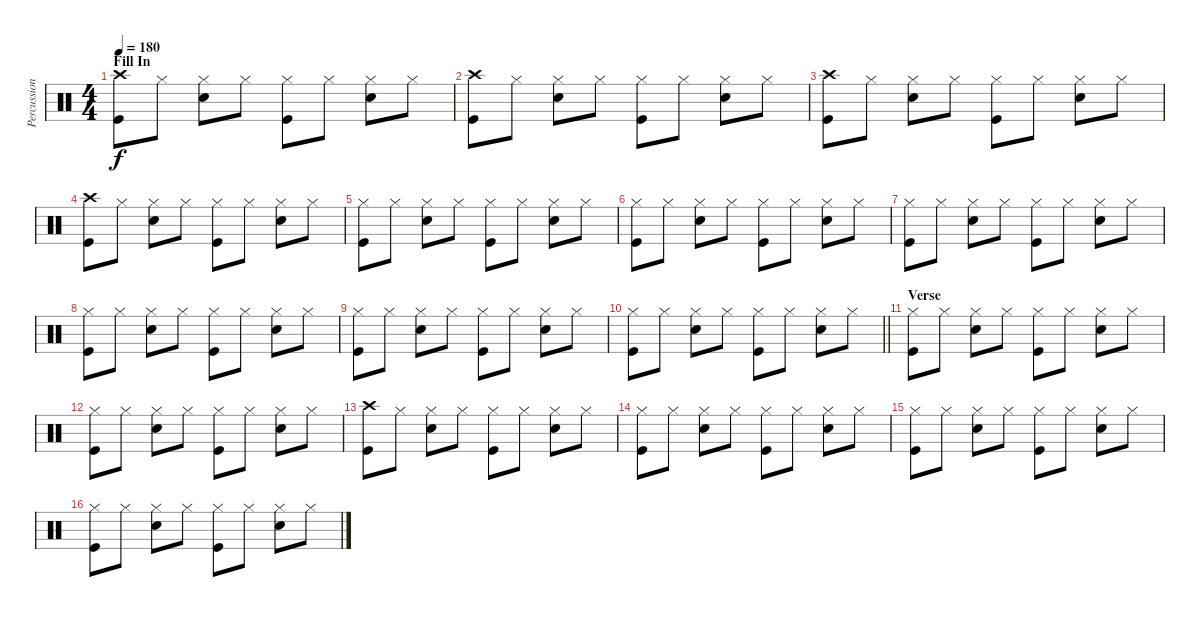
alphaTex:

\track ("Percussion" "Percussion") {mute instrument percussion}
\staff {score}
\articulation defaults
\ts (4 4)
\section ("" "Fill In")
\tempo 180
\clef neutral
\ks c
("Crash high (hit)" "Kick (hit)").8{dy f} "Hi-Hat (closed)".8 ("Hi-Hat (closed)" "Snare (hit) 2").8 "Hi-Hat (closed)".8 ("Hi-Hat (closed)" "Kick (hit)").8 "Hi-Hat (closed)".8 ("Hi-Hat (closed)" "Snare (hit) 2").8 "Hi-Hat (closed)".8 |
("Crash high (hit)" "Kick (hit)").8 "Hi-Hat (closed)".8 ("Hi-Hat (closed)" "Snare (hit) 2").8 "Hi-Hat (closed)".8 ("Hi-Hat (closed)" "Kick (hit)").8 "Hi-Hat (closed)".8 ("Hi-Hat (closed)" "Snare (hit) 2").8 "Hi-Hat (closed)".8 |
("Crash high (hit)" "Kick (hit)").8 "Hi-Hat (closed)".8 ("Hi-Hat (closed)" "Snare (hit) 2").8 "Hi-Hat (closed)".8 ("Hi-Hat (closed)" "Kick (hit)").8 "Hi-Hat (closed)".8 ("Hi-Hat (closed)" "Snare (hit) 2").8 "Hi-Hat (closed)".8 |
("Crash high (hit)" "Kick (hit)").8 "Hi-Hat (closed)".8 ("Hi-Hat (closed)" "Snare (hit) 2").8 "Hi-Hat (closed)".8 ("Hi-Hat (closed)" "Kick (hit)").8 "Hi-Hat (closed)".8 ("Hi-Hat (closed)" "Snare (hit) 2").8 "Hi-Hat (closed)".8 |
("Hi-Hat (closed)" "Kick (hit)").8 "Hi-Hat (closed)".8 ("Hi-Hat (closed)" "Snare (hit) 2").8 "Hi-Hat (closed)".8 ("Hi-Hat (closed)" "Kick (hit)").8 "Hi-Hat (closed)".8 ("Hi-Hat (closed)" "Snare (hit) 2").8 "Hi-Hat (closed)".8 |
("Hi-Hat (closed)" "Kick (hit)").8 "Hi-Hat (closed)".8 ("Hi-Hat (closed)" "Snare (hit) 2").8 "Hi-Hat (closed)".8 ("Hi-Hat (closed)" "Kick (hit)").8 "Hi-Hat (closed)".8 ("Hi-Hat (closed)" "Snare (hit) 2").8 "Hi-Hat (closed)".8 |
("Hi-Hat (closed)" "Kick (hit)").8 "Hi-Hat (closed)".8 ("Hi-Hat (closed)" "Snare (hit) 2").8 "Hi-Hat (closed)".8 ("Hi-Hat (closed)" "Kick (hit)").8 "Hi-Hat (closed)".8 ("Hi-Hat (closed)" "Snare (hit) 2").8 "Hi-Hat (closed)".8 |
("Hi-Hat (closed)" "Kick (hit)").8 "Hi-Hat (closed)".8 ("Hi-Hat (closed)" "Snare (hit) 2").8 "Hi-Hat (closed)".8 ("Hi-Hat (closed)" "Kick (hit)").8 "Hi-Hat (closed)".8 ("Hi-Hat (closed)" "Snare (hit) 2").8 "Hi-Hat (closed)".8 |
("Hi-Hat (closed)" "Kick (hit)").8 "Hi-Hat (closed)".8 ("Hi-Hat (closed)" "Snare (hit) 2").8 "Hi-Hat (closed)".8 ("Hi-Hat (closed)" "Kick (hit)").8 "Hi-Hat (closed)".8 ("Hi-Hat (closed)" "Snare (hit) 2").8 "Hi-Hat (closed)".8 |
\barLineRight lightlight
("Hi-Hat (closed)" "Kick (hit)").8 "Hi-Hat (closed)".8 ("Hi-Hat (closed)" "Snare (hit) 2").8 "Hi-Hat (closed)".8 ("Hi-Hat (closed)" "Kick (hit)").8 "Hi-Hat (closed)".8 ("Hi-Hat (closed)" "Snare (hit) 2").8 "Hi-Hat (closed)".8 |
\section ("" "Verse")
("Hi-Hat (closed)" "Kick (hit)").8 "Hi-Hat (closed)".8 ("Hi-Hat (closed)" "Snare (hit) 2").8 "Hi-Hat (closed)".8 ("Hi-Hat (closed)" "Kick (hit)").8 "Hi-Hat (closed)".8 ("Hi-Hat (closed)" "Snare (hit) 2").8 "Hi-Hat (closed)".8 |
("Hi-Hat (closed)" "Kick (hit)").8 "Hi-Hat (closed)".8 ("Hi-Hat (closed)" "Snare (hit) 2").8 "Hi-Hat (closed)".8 ("Hi-Hat (closed)" "Kick (hit)").8 "Hi-Hat (closed)".8 ("Hi-Hat (closed)" "Snare (hit) 2").8 "Hi-Hat (closed)".8 |
("Crash high (hit)" "Kick (hit)").8 "Hi-Hat (closed)".8 ("Hi-Hat (closed)" "Snare (hit) 2").8 "Hi-Hat (closed)".8 ("Hi-Hat (closed)" "Kick (hit)").8 "Hi-Hat (closed)".8 ("Hi-Hat (closed)" "Snare (hit) 2").8 "Hi-Hat (closed)".8 |
("Hi-Hat (closed)" "Kick (hit)").8 "Hi-Hat (closed)".8 ("Hi-Hat (closed)" "Snare (hit) 2").8 "Hi-Hat (closed)".8 ("Hi-Hat (closed)" "Kick (hit)").8 "Hi-Hat (closed)".8 ("Hi-Hat (closed)" "Snare (hit) 2").8 "Hi-Hat (closed)".8 |
("Hi-Hat (closed)" "Kick (hit)").8 "Hi-Hat (closed)".8 ("Hi-Hat (closed)" "Snare (hit) 2").8 "Hi-Hat (closed)".8 ("Hi-Hat (closed)" "Kick (hit)").8 "Hi-Hat (closed)".8 ("Hi-Hat (closed)" "Snare (hit) 2").8 "Hi-Hat (closed)".8 |
("Hi-Hat (closed)" "Kick (hit)").8 "Hi-Hat (closed)".8 ("Hi-Hat (closed)" "Snare (hit) 2").8 "Hi-Hat (closed)".8 ("Hi-Hat (closed)" "Kick (hit)").8 "Hi-Hat (closed)".8 ("Hi-Hat (closed)" "Snare (hit) 2").8 "Hi-Hat (closed)".8
